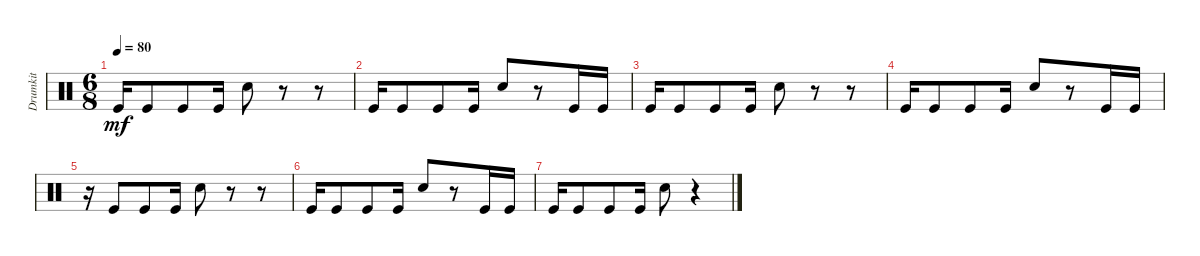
\track ("Drumkit" "Drumkit") {instrument percussion}
\staff {score}
\articulation defaults
\ts (6 8)
\tempo 80
\clef neutral
\ks c "Kick (hit)".16{dy mf} "Kick (hit)".8 "Kick (hit)".8 "Kick (hit)".16 "Snare (hit) 2".8
r.8 r.8 |
"Kick (hit)".16 "Kick (hit)".8 "Kick (hit)".8 "Kick (hit)".16 "Snare (hit) 2".8 r.8 "Kick (hit)".16 "Kick (hit)".16 |
"Kick (hit)".16 "Kick (hit)".8 "Kick (hit)".8 "Kick (hit)".16 "Snare (hit) 2".8 r.8 r.8 |
"Kick (hit)".16 "Kick (hit)".8 "Kick (hit)".8 "Kick (hit)".16 "Snare (hit) 2".8 r.8 "Kick (hit)".16 "Kick (hit)".16 |
r.16 "Kick (hit)".8 "Kick (hit)".8 "Kick (hit)".16 "Snare (hit) 2".8 r.8 r.8 |
"Kick (hit)".16 "Kick (hit)".8 "Kick (hit)".8 "Kick (hit)".16 "Snare (hit) 2".8 r.8 "Kick (hit)".16 "Kick (hit)".16 |
"Kick (hit)".16 "Kick (hit)".8 "Kick (hit)".8 "Kick (hit)".16 "Snare (hit) 2".8 r.4
